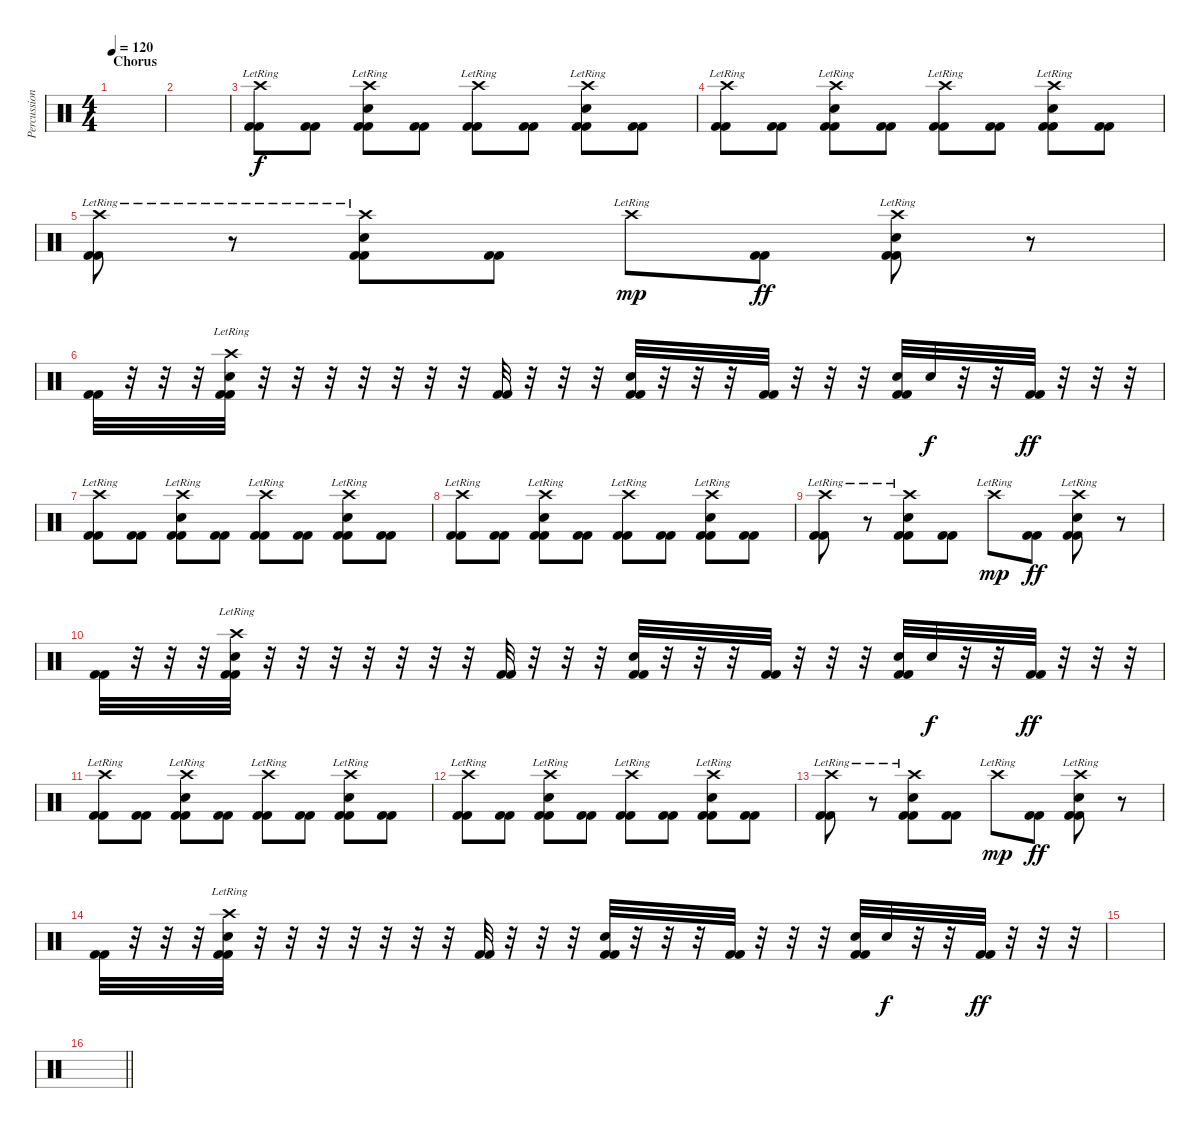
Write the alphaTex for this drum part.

\track ("Percussion" "Percussion") {instrument percussion}
\staff {score}
\articulation defaults
\ts (4 4)
\section ("" "Chorus")
\tempo 120
\clef neutral
\ks c
|
|
("Crash high (hit)"{lr} "Kick (hit) 2" "Kick (hit) 2").8 ("Kick (hit) 2" "Kick (hit) 2").8 ("Crash high (hit)"{lr} "Snare (hit) 2" "Kick (hit) 2" "Kick (hit) 2").8 ("Kick (hit) 2" "Kick (hit) 2").8 ("Crash high (hit)"{lr} "Kick (hit) 2" "Kick (hit) 2").8 ("Kick (hit) 2" "Kick (hit) 2").8 ("Crash high (hit)"{lr} "Snare (hit) 2" "Kick (hit) 2" "Kick (hit) 2").8 ("Kick (hit) 2" "Kick (hit) 2").8 |
("Crash high (hit)"{lr} "Kick (hit) 2" "Kick (hit) 2").8 ("Kick (hit) 2" "Kick (hit) 2").8 ("Crash high (hit)"{lr} "Snare (hit) 2" "Kick (hit) 2" "Kick (hit) 2").8 ("Kick (hit) 2" "Kick (hit) 2").8 ("Crash high (hit)"{lr} "Kick (hit) 2" "Kick (hit) 2").8 ("Kick (hit) 2" "Kick (hit) 2").8 ("Crash high (hit)"{lr} "Snare (hit) 2" "Kick (hit) 2" "Kick (hit) 2").8 ("Kick (hit) 2" "Kick (hit) 2").8 |
("Crash high (hit)"{lr} "Kick (hit) 2" "Kick (hit) 2").8 r.8 ("Crash high (hit)"{lr} "Snare (hit) 2" "Kick (hit) 2" "Kick (hit) 2").8 ("Kick (hit) 2" "Kick (hit) 2").8 "Crash high (hit)"{lr}.8{dy mp} ("Kick (hit) 2" "Kick (hit) 2").8{dy ff} ("Crash high (hit)"{lr} "Snare (hit) 2" "Kick (hit) 2" "Kick (hit) 2").8 r.8 |
("Kick (hit) 2" "Kick (hit) 2").32 r.32 r.32 r.32 ("Crash high (hit)"{lr} "Snare (hit) 2" "Kick (hit) 2" "Kick (hit) 2").32 r.32 r.32 r.32 r.32 r.32 r.32 r.32 ("Kick (hit) 2" "Kick (hit) 2").32 r.32 r.32 r.32 ("Snare (hit) 2" "Kick (hit) 2" "Kick (hit) 2").32 r.32 r.32 r.32 ("Kick (hit) 2" "Kick (hit) 2").32 r.32 r.32 r.32 ("Snare (hit) 2" "Kick (hit) 2" "Kick (hit) 2").32 "Snare (hit) 2".32{dy f} r.32 r.32 ("Kick (hit) 2" "Kick (hit) 2").32{dy ff} r.32 r.32 r.32 |
("Crash high (hit)"{lr} "Kick (hit) 2" "Kick (hit) 2").8 ("Kick (hit) 2" "Kick (hit) 2").8 ("Crash high (hit)"{lr} "Snare (hit) 2" "Kick (hit) 2" "Kick (hit) 2").8 ("Kick (hit) 2" "Kick (hit) 2").8 ("Crash high (hit)"{lr} "Kick (hit) 2" "Kick (hit) 2").8 ("Kick (hit) 2" "Kick (hit) 2").8 ("Crash high (hit)"{lr} "Snare (hit) 2" "Kick (hit) 2" "Kick (hit) 2").8 ("Kick (hit) 2" "Kick (hit) 2").8 |
("Crash high (hit)"{lr} "Kick (hit) 2" "Kick (hit) 2").8 ("Kick (hit) 2" "Kick (hit) 2").8 ("Crash high (hit)"{lr} "Snare (hit) 2" "Kick (hit) 2" "Kick (hit) 2").8 ("Kick (hit) 2" "Kick (hit) 2").8 ("Crash high (hit)"{lr} "Kick (hit) 2" "Kick (hit) 2").8 ("Kick (hit) 2" "Kick (hit) 2").8 ("Crash high (hit)"{lr} "Snare (hit) 2" "Kick (hit) 2" "Kick (hit) 2").8 ("Kick (hit) 2" "Kick (hit) 2").8 |
("Crash high (hit)"{lr} "Kick (hit) 2" "Kick (hit) 2").8 r.8 ("Crash high (hit)"{lr} "Snare (hit) 2" "Kick (hit) 2" "Kick (hit) 2").8 ("Kick (hit) 2" "Kick (hit) 2").8 "Crash high (hit)"{lr}.8{dy mp} ("Kick (hit) 2" "Kick (hit) 2").8{dy ff} ("Crash high (hit)"{lr} "Snare (hit) 2" "Kick (hit) 2" "Kick (hit) 2").8 r.8 |
("Kick (hit) 2" "Kick (hit) 2").32 r.32 r.32 r.32 ("Crash high (hit)"{lr} "Snare (hit) 2" "Kick (hit) 2" "Kick (hit) 2").32 r.32 r.32 r.32 r.32 r.32 r.32 r.32 ("Kick (hit) 2" "Kick (hit) 2").32 r.32 r.32 r.32 ("Snare (hit) 2" "Kick (hit) 2" "Kick (hit) 2").32 r.32 r.32 r.32 ("Kick (hit) 2" "Kick (hit) 2").32 r.32 r.32 r.32 ("Snare (hit) 2" "Kick (hit) 2" "Kick (hit) 2").32 "Snare (hit) 2".32{dy f} r.32 r.32 ("Kick (hit) 2" "Kick (hit) 2").32{dy ff} r.32 r.32 r.32 |
("Crash high (hit)"{lr} "Kick (hit) 2" "Kick (hit) 2").8 ("Kick (hit) 2" "Kick (hit) 2").8 ("Crash high (hit)"{lr} "Snare (hit) 2" "Kick (hit) 2" "Kick (hit) 2").8 ("Kick (hit) 2" "Kick (hit) 2").8 ("Crash high (hit)"{lr} "Kick (hit) 2" "Kick (hit) 2").8 ("Kick (hit) 2" "Kick (hit) 2").8 ("Crash high (hit)"{lr} "Snare (hit) 2" "Kick (hit) 2" "Kick (hit) 2").8 ("Kick (hit) 2" "Kick (hit) 2").8 |
("Crash high (hit)"{lr} "Kick (hit) 2" "Kick (hit) 2").8 ("Kick (hit) 2" "Kick (hit) 2").8 ("Crash high (hit)"{lr} "Snare (hit) 2" "Kick (hit) 2" "Kick (hit) 2").8 ("Kick (hit) 2" "Kick (hit) 2").8 ("Crash high (hit)"{lr} "Kick (hit) 2" "Kick (hit) 2").8 ("Kick (hit) 2" "Kick (hit) 2").8 ("Crash high (hit)"{lr} "Snare (hit) 2" "Kick (hit) 2" "Kick (hit) 2").8 ("Kick (hit) 2" "Kick (hit) 2").8 |
("Crash high (hit)"{lr} "Kick (hit) 2" "Kick (hit) 2").8 r.8 ("Crash high (hit)"{lr} "Snare (hit) 2" "Kick (hit) 2" "Kick (hit) 2").8 ("Kick (hit) 2" "Kick (hit) 2").8 "Crash high (hit)"{lr}.8{dy mp} ("Kick (hit) 2" "Kick (hit) 2").8{dy ff} ("Crash high (hit)"{lr} "Snare (hit) 2" "Kick (hit) 2" "Kick (hit) 2").8 r.8 |
("Kick (hit) 2" "Kick (hit) 2").32 r.32 r.32 r.32 ("Crash high (hit)"{lr} "Snare (hit) 2" "Kick (hit) 2" "Kick (hit) 2").32 r.32 r.32 r.32 r.32 r.32 r.32 r.32 ("Kick (hit) 2" "Kick (hit) 2").32 r.32 r.32 r.32 ("Snare (hit) 2" "Kick (hit) 2" "Kick (hit) 2").32 r.32 r.32 r.32 ("Kick (hit) 2" "Kick (hit) 2").32 r.32 r.32 r.32 ("Snare (hit) 2" "Kick (hit) 2" "Kick (hit) 2").32 "Snare (hit) 2".32{dy f} r.32 r.32 ("Kick (hit) 2" "Kick (hit) 2").32{dy ff} r.32 r.32 r.32 |
|
\barLineRight lightlight
